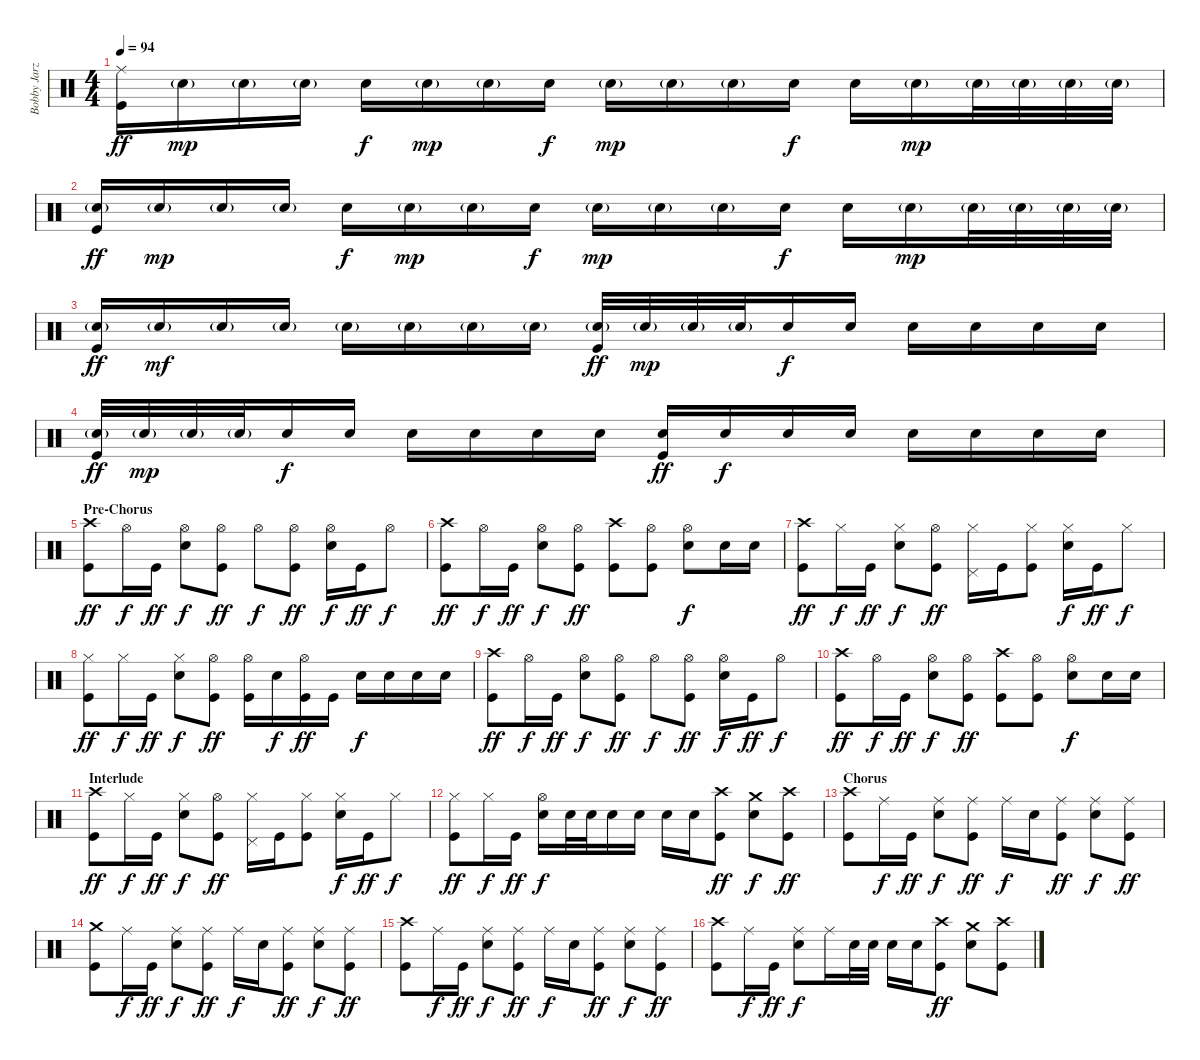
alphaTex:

\track ("Bobby Jarzombek" "Bobby Jarz") {instrument percussion}
\staff {score}
\articulation defaults
\ts (4 4)
\tempo 94
\clef neutral
\ks c
("Ride (middle)" "Kick (hit)").16{dy ff} "Electric Snare (hit)"{g}.16{dy mp} "Electric Snare (hit)"{g}.16 "Electric Snare (hit)"{g}.16 "Electric Snare (hit)".16{dy f} "Electric Snare (hit)"{g}.16{dy mp} "Electric Snare (hit)"{g}.16 "Electric Snare (hit)".16{dy f} "Electric Snare (hit)"{g}.16{dy mp} "Electric Snare (hit)"{g}.16 "Electric Snare (hit)"{g}.16 "Electric Snare (hit)".16{dy f} "Electric Snare (hit)".16 "Electric Snare (hit)"{g}.16{dy mp} "Electric Snare (hit)"{g}.32 "Electric Snare (hit)"{g}.32 "Electric Snare (hit)"{g}.32 "Electric Snare (hit)"{g}.32 |
("Electric Snare (hit)"{g} "Kick (hit)").16{dy ff} "Electric Snare (hit)"{g}.16{dy mp} "Electric Snare (hit)"{g}.16 "Electric Snare (hit)"{g}.16 "Electric Snare (hit)".16{dy f} "Electric Snare (hit)"{g}.16{dy mp} "Electric Snare (hit)"{g}.16 "Electric Snare (hit)".16{dy f} "Electric Snare (hit)"{g}.16{dy mp} "Electric Snare (hit)"{g}.16 "Electric Snare (hit)"{g}.16 "Electric Snare (hit)".16{dy f} "Electric Snare (hit)".16 "Electric Snare (hit)"{g}.16{dy mp} "Electric Snare (hit)"{g}.32 "Electric Snare (hit)"{g}.32 "Electric Snare (hit)"{g}.32 "Electric Snare (hit)"{g}.32 |
("Electric Snare (hit)"{g} "Kick (hit)").16{dy ff} "Electric Snare (hit)"{g}.16{dy mf} "Electric Snare (hit)"{g}.16 "Electric Snare (hit)"{g}.16 "Electric Snare (hit)"{g}.16 "Electric Snare (hit)"{g}.16 "Electric Snare (hit)"{g}.16 "Electric Snare (hit)"{g}.16 ("Electric Snare (hit)"{g} "Kick (hit)").32{dy ff} "Electric Snare (hit)"{g}.32{dy mp} "Electric Snare (hit)"{g}.32 "Electric Snare (hit)"{g}.32 "Electric Snare (hit)".16{dy f} "Electric Snare (hit)".16 "Electric Snare (hit)".16 "Electric Snare (hit)".16 "Electric Snare (hit)".16 "Electric Snare (hit)".16 |
("Electric Snare (hit)"{g} "Kick (hit)").32{dy ff} "Electric Snare (hit)"{g}.32{dy mp} "Electric Snare (hit)"{g}.32 "Electric Snare (hit)"{g}.32 "Electric Snare (hit)".16{dy f} "Electric Snare (hit)".16 "Electric Snare (hit)".16 "Electric Snare (hit)".16 "Electric Snare (hit)".16 "Electric Snare (hit)".16 ("Electric Snare (hit)" "Kick (hit)").16{dy ff} "Electric Snare (hit)".16{dy f} "Electric Snare (hit)".16 "Electric Snare (hit)".16 "Electric Snare (hit)".16 "Electric Snare (hit)".16 "Electric Snare (hit)".16 "Electric Snare (hit)".16 |
\section ("" "Pre-Chorus")
("Crash high (hit)" "Kick (hit)").8{dy ff} "Hi-Hat (open)".16{dy f} "Kick (hit)".16{dy ff} ("Hi-Hat (open)" "Electric Snare (hit)").8{dy f} ("Hi-Hat (open)" "Kick (hit)").8{dy ff} "Hi-Hat (open)".8{dy f} ("Hi-Hat (open)" "Kick (hit)").8{dy ff} ("Hi-Hat (open)" "Electric Snare (hit)").16{dy f} "Kick (hit)".16{dy ff} "Hi-Hat (open)".8{dy f} |
("Crash high (hit)" "Kick (hit)").8{dy ff} "Hi-Hat (open)".16{dy f} "Kick (hit)".16{dy ff} ("Hi-Hat (open)" "Electric Snare (hit)").8{dy f} ("Hi-Hat (open)" "Kick (hit)").8{dy ff} ("Crash high (hit)" "Kick (hit)").8 ("Hi-Hat (open)" "Kick (hit)").8 ("Hi-Hat (open)" "Electric Snare (hit)").8{dy f} "Electric Snare (hit)".16 "Electric Snare (hit)".16 |
("Crash high (hit)" "Kick (hit)").8{dy ff} "Hi-Hat (closed)".16{dy f} "Kick (hit)".16{dy ff} ("Hi-Hat (closed)" "Electric Snare (hit)").8{dy f} ("Hi-Hat (open)" "Kick (hit)").8{dy ff} ("Hi-Hat (closed)" "Pedal Hi-Hat (hit)").16 "Kick (hit)".16 ("Hi-Hat (closed)" "Kick (hit)").8 ("Hi-Hat (closed)" "Electric Snare (hit)").16{dy f} "Kick (hit)".16{dy ff} "Hi-Hat (closed)".8{dy f} |
("Hi-Hat (closed)" "Kick (hit)").8{dy ff} "Hi-Hat (closed)".16{dy f} "Kick (hit)".16{dy ff} ("Hi-Hat (closed)" "Electric Snare (hit)").8{dy f} ("Hi-Hat (open)" "Kick (hit)").8{dy ff} ("Hi-Hat (open)" "Kick (hit)").16 "Electric Snare (hit)".16{dy f} ("Hi-Hat (open)" "Kick (hit)").16{dy ff} "Kick (hit)".16 "Electric Snare (hit)".16{dy f} "Electric Snare (hit)".16 "Electric Snare (hit)".16 "Electric Snare (hit)".16 |
("Crash high (hit)" "Kick (hit)").8{dy ff} "Hi-Hat (open)".16{dy f} "Kick (hit)".16{dy ff} ("Hi-Hat (open)" "Electric Snare (hit)").8{dy f} ("Hi-Hat (open)" "Kick (hit)").8{dy ff} "Hi-Hat (open)".8{dy f} ("Hi-Hat (open)" "Kick (hit)").8{dy ff} ("Hi-Hat (open)" "Electric Snare (hit)").16{dy f} "Kick (hit)".16{dy ff} "Hi-Hat (open)".8{dy f} |
("Crash high (hit)" "Kick (hit)").8{dy ff} "Hi-Hat (open)".16{dy f} "Kick (hit)".16{dy ff} ("Hi-Hat (open)" "Electric Snare (hit)").8{dy f} ("Hi-Hat (open)" "Kick (hit)").8{dy ff} ("Crash high (hit)" "Kick (hit)").8 ("Hi-Hat (open)" "Kick (hit)").8 ("Hi-Hat (open)" "Electric Snare (hit)").8{dy f} "Electric Snare (hit)".16 "Electric Snare (hit)".16 |
\section ("" "Interlude")
("Crash high (hit)" "Kick (hit)").8{dy ff} "Hi-Hat (closed)".16{dy f} "Kick (hit)".16{dy ff} ("Hi-Hat (closed)" "Electric Snare (hit)").8{dy f} ("Hi-Hat (open)" "Kick (hit)").8{dy ff} ("Hi-Hat (closed)" "Pedal Hi-Hat (hit)").16 "Kick (hit)".16 ("Hi-Hat (closed)" "Kick (hit)").8 ("Hi-Hat (closed)" "Electric Snare (hit)").16{dy f} "Kick (hit)".16{dy ff} "Hi-Hat (closed)".8{dy f} |
("Hi-Hat (closed)" "Kick (hit)").8{dy ff} "Hi-Hat (closed)".16{dy f} "Kick (hit)".16{dy ff} ("Hi-Hat (open)" "Electric Snare (hit)").16{dy f} "Electric Snare (hit)".32 "Electric Snare (hit)".32 "Electric Snare (hit)".16 "Electric Snare (hit)".16 "Electric Snare (hit)".16 "Electric Snare (hit)".16 ("Crash high (hit)" "Kick (hit)").8{dy ff} ("Crash medium (hit)" "Electric Snare (hit)").8{dy f} ("Crash high (hit)" "Kick (hit)").8{dy ff} |
\section ("" "Chorus")
("Crash high (hit)" "Kick (hit)").8 "Ride (middle)".16{dy f} "Kick (hit)".16{dy ff} ("Ride (middle)" "Electric Snare (hit)").8{dy f} ("Ride (middle)" "Kick (hit)").8{dy ff} "Ride (middle)".16{dy f} "Electric Snare (hit)".16 ("Ride (middle)" "Kick (hit)").8{dy ff} ("Ride (middle)" "Electric Snare (hit)").8{dy f} ("Ride (middle)" "Kick (hit)").8{dy ff} |
("Crash medium (hit)" "Kick (hit)").8 "Ride (middle)".16{dy f} "Kick (hit)".16{dy ff} ("Ride (middle)" "Electric Snare (hit)").8{dy f} ("Ride (middle)" "Kick (hit)").8{dy ff} "Ride (middle)".16{dy f} "Electric Snare (hit)".16 ("Ride (middle)" "Kick (hit)").8{dy ff} ("Ride (middle)" "Electric Snare (hit)").8{dy f} ("Ride (middle)" "Kick (hit)").8{dy ff} |
("Crash high (hit)" "Kick (hit)").8 "Ride (middle)".16{dy f} "Kick (hit)".16{dy ff} ("Ride (middle)" "Electric Snare (hit)").8{dy f} ("Ride (middle)" "Kick (hit)").8{dy ff} "Ride (middle)".16{dy f} "Electric Snare (hit)".16 ("Ride (middle)" "Kick (hit)").8{dy ff} ("Ride (middle)" "Electric Snare (hit)").8{dy f} ("Ride (middle)" "Kick (hit)").8{dy ff} |
("Crash high (hit)" "Kick (hit)").8 "Ride (middle)".16{dy f} "Kick (hit)".16{dy ff} ("Ride (middle)" "Electric Snare (hit)").8{dy f} "Ride (middle)".16 "Electric Snare (hit)".32 "Electric Snare (hit)".32 "Electric Snare (hit)".16 "Electric Snare (hit)".16 ("Crash high (hit)" "Kick (hit)").8{dy ff} ("Crash medium (hit)" "Electric Snare (hit)").8 ("Crash high (hit)" "Kick (hit)").8
